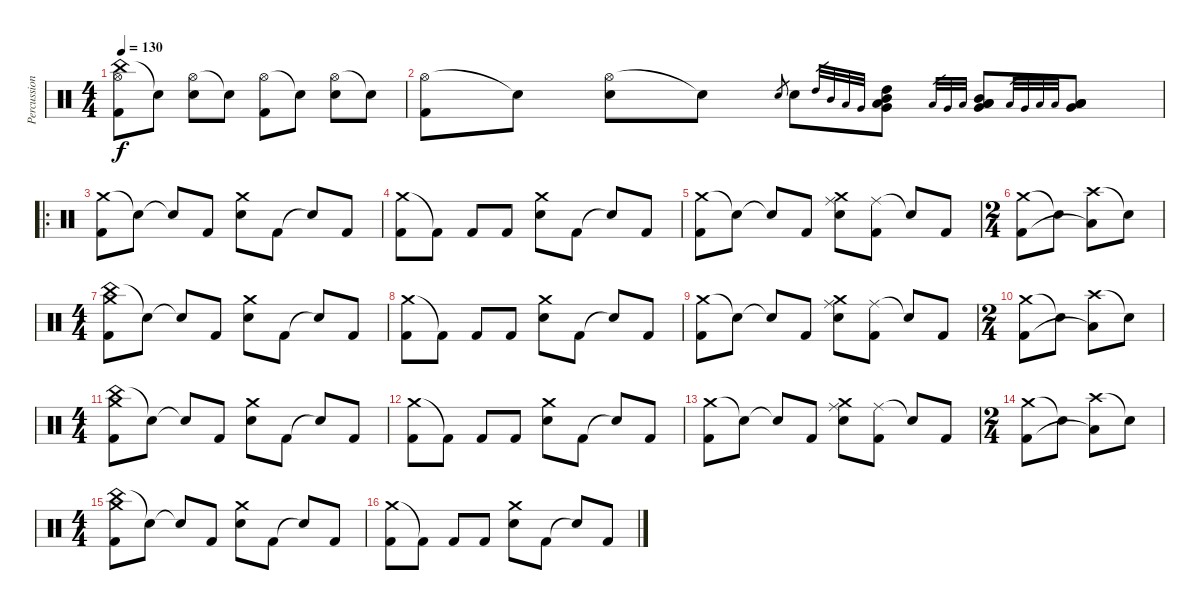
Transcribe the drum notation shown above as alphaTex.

\track ("Percussion" "Percussion") {instrument percussion}
\staff {score}
\articulation defaults
\ts (4 4)
\tempo 130
\clef neutral
\ks c
("China (hit)" "Hi-Hat (open)" "Kick (hit) 2").8{dy f} "Snare (hit)"{t}.8 ("Hi-Hat (open)" "Electric Snare (hit)").8 "Snare (hit)"{t}.8 ("Hi-Hat (open)" "Kick (hit) 2").8 "Snare (hit)"{t}.8 ("Hi-Hat (open)" "Electric Snare (hit)").8 "Snare (hit)"{t}.8 |
("Hi-Hat (open)" "Kick (hit) 2").8 "Snare (hit)"{t}.8 ("Hi-Hat (open)" "Electric Snare (hit)").8 "Electric Snare (hit)"{t}.8 "Electric Snare (hit)".8{gr} "Electric Snare (hit)".8 "High Tom (hit)".32{gr} "Mid Tom (hit)".32{gr} "Low Tom (hit)".32{gr} "Very Low Tom (hit)".32{gr} ("High Tom (hit)" "Mid Tom (hit)" "Low Tom (hit)" "Very Low Tom (hit)").8 "Low Tom (hit)".32{gr} "Very Low Tom (hit)".32{gr} "Low Floor Tom (hit)".32{gr} ("Mid Tom (hit)" "Low Tom (hit)" "Very Low Tom (hit)" "Low Floor Tom (hit)").8 "Low Tom (hit)".32{gr} "Very Low Tom (hit)".32{gr} "Low Floor Tom (hit)".32{gr} "Low Floor Tom (hit)".32{gr} ("Low Tom (hit)" "Very Low Tom (hit)" "Low Floor Tom (hit)" "Low Floor Tom (hit)").8 |
\ro
("Crash medium (hit)" "Kick (hit) 2").8 "Snare (hit)"{t}.8 "Snare (hit)"{t}.8 "Kick (hit) 2".8 ("Crash medium (hit)" "Electric Snare (hit)").8 "Kick (hit) 2".8 "Snare (hit)"{t}.8 "Kick (hit) 2".8 |
("Crash medium (hit)" "Kick (hit) 2").8 "Kick (hit) 2"{t}.8 "Kick (hit) 2".8 "Kick (hit) 2".8 ("Crash medium (hit)" "Electric Snare (hit)").8 "Kick (hit) 2".8 "Snare (hit)"{t}.8 "Kick (hit) 2".8 |
("Crash medium (hit)" "Kick (hit) 2").8 "Snare (hit)"{t}.8 "Snare (hit)"{t}.8 "Kick (hit) 2".8 ("Crash medium (hit)" "Ride (middle)" "Electric Snare (hit)").8 ("Ride (middle)" "Kick (hit) 2").8 "Snare (hit)"{t}.8 "Kick (hit) 2".8 |
\ts (2 4)
("Crash medium (hit)" "Kick (hit) 2").8 "Snare (hit)"{t}.8 ("Crash high (hit)" "Low Tom (hit)"{t}).8 "Snare (hit)"{t}.8 |
\ts (4 4)
("China (hit)" "Crash medium (hit)" "Kick (hit) 2").8 "Snare (hit)"{t}.8 "Snare (hit)"{t}.8 "Kick (hit) 2".8 ("Crash medium (hit)" "Electric Snare (hit)").8 "Kick (hit) 2".8 "Snare (hit)"{t}.8 "Kick (hit) 2".8 |
("Crash medium (hit)" "Kick (hit) 2").8 "Kick (hit) 2"{t}.8 "Kick (hit) 2".8 "Kick (hit) 2".8 ("Crash medium (hit)" "Electric Snare (hit)").8 "Kick (hit) 2".8 "Snare (hit)"{t}.8 "Kick (hit) 2".8 |
("Crash medium (hit)" "Kick (hit) 2").8 "Snare (hit)"{t}.8 "Snare (hit)"{t}.8 "Kick (hit) 2".8 ("Crash medium (hit)" "Ride (middle)" "Electric Snare (hit)").8 ("Ride (middle)" "Kick (hit) 2").8 "Snare (hit)"{t}.8 "Kick (hit) 2".8 |
\ts (2 4)
("Crash medium (hit)" "Kick (hit) 2").8 "Snare (hit)"{t}.8 ("Crash high (hit)" "Low Tom (hit)"{t}).8 "Snare (hit)"{t}.8 |
\ts (4 4)
("China (hit)" "Crash medium (hit)" "Kick (hit) 2").8 "Snare (hit)"{t}.8 "Snare (hit)"{t}.8 "Kick (hit) 2".8 ("Crash medium (hit)" "Electric Snare (hit)").8 "Kick (hit) 2".8 "Snare (hit)"{t}.8 "Kick (hit) 2".8 |
("Crash medium (hit)" "Kick (hit) 2").8 "Kick (hit) 2"{t}.8 "Kick (hit) 2".8 "Kick (hit) 2".8 ("Crash medium (hit)" "Electric Snare (hit)").8 "Kick (hit) 2".8 "Snare (hit)"{t}.8 "Kick (hit) 2".8 |
("Crash medium (hit)" "Kick (hit) 2").8 "Snare (hit)"{t}.8 "Snare (hit)"{t}.8 "Kick (hit) 2".8 ("Crash medium (hit)" "Ride (middle)" "Electric Snare (hit)").8 ("Ride (middle)" "Kick (hit) 2").8 "Snare (hit)"{t}.8 "Kick (hit) 2".8 |
\ts (2 4)
("Crash medium (hit)" "Kick (hit) 2").8 "Snare (hit)"{t}.8 ("Crash high (hit)" "Low Tom (hit)"{t}).8 "Snare (hit)"{t}.8 |
\ts (4 4)
("China (hit)" "Crash medium (hit)" "Kick (hit) 2").8 "Snare (hit)"{t}.8 "Snare (hit)"{t}.8 "Kick (hit) 2".8 ("Crash medium (hit)" "Electric Snare (hit)").8 "Kick (hit) 2".8 "Snare (hit)"{t}.8 "Kick (hit) 2".8 |
("Crash medium (hit)" "Kick (hit) 2").8 "Kick (hit) 2"{t}.8 "Kick (hit) 2".8 "Kick (hit) 2".8 ("Crash medium (hit)" "Electric Snare (hit)").8 "Kick (hit) 2".8 "Snare (hit)"{t}.8 "Kick (hit) 2".8
